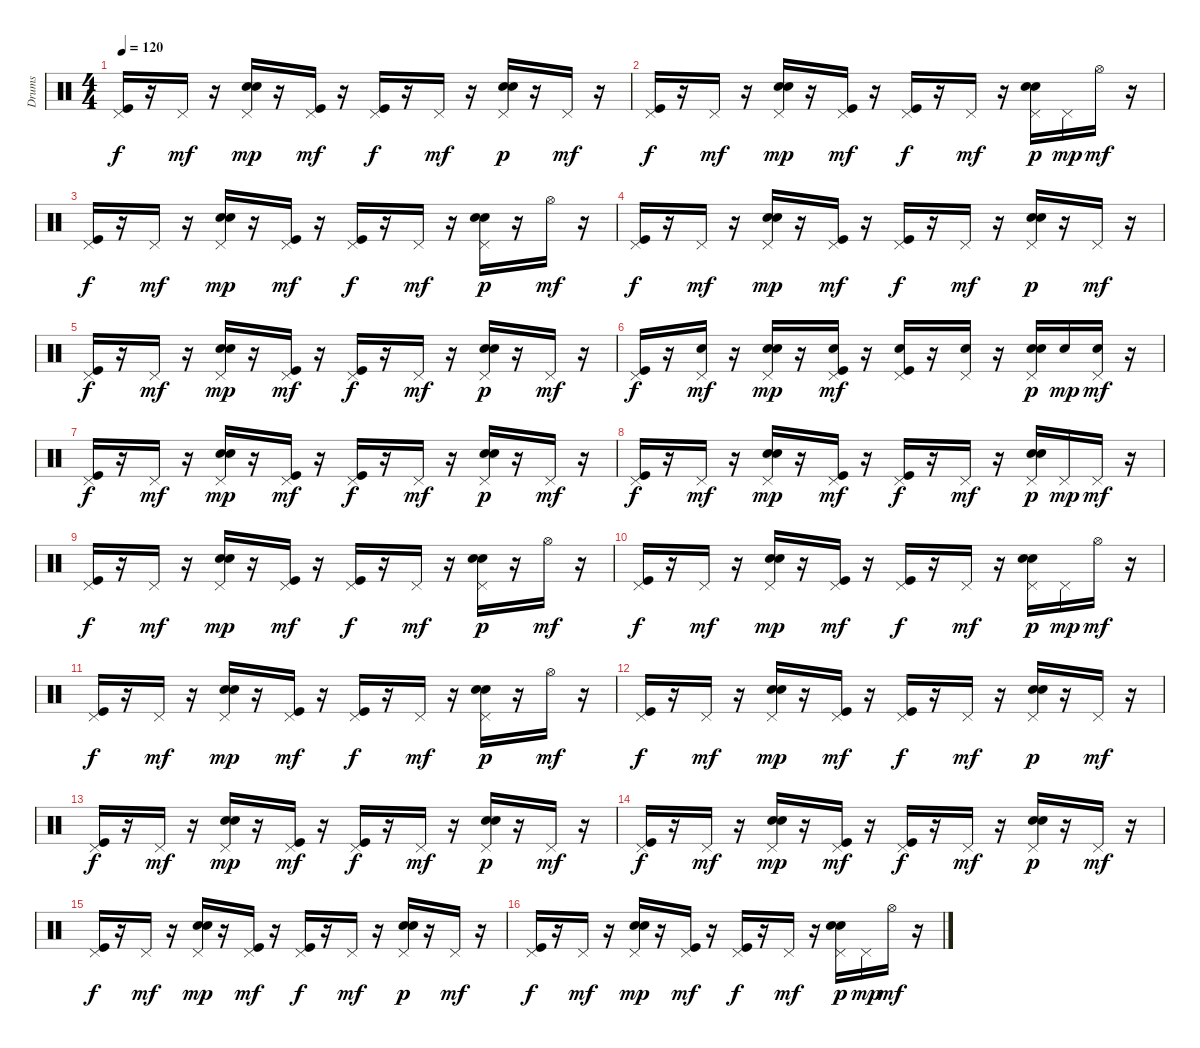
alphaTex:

\track ("Drums   " "Drums   ") {instrument percussion}
\staff {score}
\articulation defaults
\ts (4 4)
\tempo 120
\clef neutral
\ks c
("Kick (hit)" "Pedal Hi-Hat (hit)").16{dy f} r.16 "Pedal Hi-Hat (hit)".16{dy mf} r.16 ("Electric Snare (hit)" "Pedal Hi-Hat (hit)" "Hand Clap (hit)").16{dy mp} r.16 ("Kick (hit)" "Pedal Hi-Hat (hit)").16{dy mf} r.16 ("Kick (hit)" "Pedal Hi-Hat (hit)").16{dy f} r.16 "Pedal Hi-Hat (hit)".16{dy mf} r.16 ("Electric Snare (hit)" "Pedal Hi-Hat (hit)" "Hand Clap (hit)").16{dy p} r.16 "Pedal Hi-Hat (hit)".16{dy mf} r.16 |
("Kick (hit)" "Pedal Hi-Hat (hit)").16{dy f} r.16 "Pedal Hi-Hat (hit)".16{dy mf} r.16 ("Electric Snare (hit)" "Pedal Hi-Hat (hit)" "Hand Clap (hit)").16{dy mp} r.16 ("Kick (hit)" "Pedal Hi-Hat (hit)").16{dy mf} r.16 ("Kick (hit)" "Pedal Hi-Hat (hit)").16{dy f} r.16 "Pedal Hi-Hat (hit)".16{dy mf} r.16 ("Electric Snare (hit)" "Pedal Hi-Hat (hit)" "Hand Clap (hit)").16{dy p} "Pedal Hi-Hat (hit)".16{dy mp} "Hi-Hat (open)".16{dy mf} r.16 |
("Kick (hit)" "Pedal Hi-Hat (hit)").16{dy f} r.16 "Pedal Hi-Hat (hit)".16{dy mf} r.16 ("Electric Snare (hit)" "Pedal Hi-Hat (hit)" "Hand Clap (hit)").16{dy mp} r.16 ("Kick (hit)" "Pedal Hi-Hat (hit)").16{dy mf} r.16 ("Kick (hit)" "Pedal Hi-Hat (hit)").16{dy f} r.16 "Pedal Hi-Hat (hit)".16{dy mf} r.16 ("Electric Snare (hit)" "Pedal Hi-Hat (hit)" "Hand Clap (hit)").16{dy p} r.16 "Hi-Hat (open)".16{dy mf} r.16 |
("Kick (hit)" "Pedal Hi-Hat (hit)").16{dy f} r.16 "Pedal Hi-Hat (hit)".16{dy mf} r.16 ("Electric Snare (hit)" "Pedal Hi-Hat (hit)" "Hand Clap (hit)").16{dy mp} r.16 ("Kick (hit)" "Pedal Hi-Hat (hit)").16{dy mf} r.16 ("Kick (hit)" "Pedal Hi-Hat (hit)").16{dy f} r.16 "Pedal Hi-Hat (hit)".16{dy mf} r.16 ("Electric Snare (hit)" "Pedal Hi-Hat (hit)" "Hand Clap (hit)").16{dy p} r.16 "Pedal Hi-Hat (hit)".16{dy mf} r.16 |
("Kick (hit)" "Pedal Hi-Hat (hit)").16{dy f} r.16 "Pedal Hi-Hat (hit)".16{dy mf} r.16 ("Electric Snare (hit)" "Pedal Hi-Hat (hit)" "Hand Clap (hit)").16{dy mp} r.16 ("Kick (hit)" "Pedal Hi-Hat (hit)").16{dy mf} r.16 ("Kick (hit)" "Pedal Hi-Hat (hit)").16{dy f} r.16 "Pedal Hi-Hat (hit)".16{dy mf} r.16 ("Electric Snare (hit)" "Pedal Hi-Hat (hit)" "Hand Clap (hit)").16{dy p} r.16 "Pedal Hi-Hat (hit)".16{dy mf} r.16 |
("Kick (hit)" "Pedal Hi-Hat (hit)").16{dy f} r.16 ("Electric Snare (hit)" "Pedal Hi-Hat (hit)").16{dy mf} r.16 ("Electric Snare (hit)" "Pedal Hi-Hat (hit)" "Hand Clap (hit)").16{dy mp} r.16 ("Kick (hit)" "Electric Snare (hit)" "Pedal Hi-Hat (hit)").16{dy mf} r.16 ("Kick (hit)" "Electric Snare (hit)" "Pedal Hi-Hat (hit)").16 r.16 ("Electric Snare (hit)" "Pedal Hi-Hat (hit)").16 r.16 ("Electric Snare (hit)" "Pedal Hi-Hat (hit)" "Hand Clap (hit)").16{dy p} "Electric Snare (hit)".16{dy mp} ("Electric Snare (hit)" "Pedal Hi-Hat (hit)").16{dy mf} r.16 |
("Kick (hit)" "Pedal Hi-Hat (hit)").16{dy f} r.16 "Pedal Hi-Hat (hit)".16{dy mf} r.16 ("Electric Snare (hit)" "Pedal Hi-Hat (hit)" "Hand Clap (hit)").16{dy mp} r.16 ("Kick (hit)" "Pedal Hi-Hat (hit)").16{dy mf} r.16 ("Kick (hit)" "Pedal Hi-Hat (hit)").16{dy f} r.16 "Pedal Hi-Hat (hit)".16{dy mf} r.16 ("Electric Snare (hit)" "Pedal Hi-Hat (hit)" "Hand Clap (hit)").16{dy p} r.16 "Pedal Hi-Hat (hit)".16{dy mf} r.16 |
("Kick (hit)" "Pedal Hi-Hat (hit)").16{dy f} r.16 "Pedal Hi-Hat (hit)".16{dy mf} r.16 ("Electric Snare (hit)" "Pedal Hi-Hat (hit)" "Hand Clap (hit)").16{dy mp} r.16 ("Kick (hit)" "Pedal Hi-Hat (hit)").16{dy mf} r.16 ("Kick (hit)" "Pedal Hi-Hat (hit)").16{dy f} r.16 "Pedal Hi-Hat (hit)".16{dy mf} r.16 ("Electric Snare (hit)" "Pedal Hi-Hat (hit)" "Hand Clap (hit)").16{dy p} "Pedal Hi-Hat (hit)".16{dy mp} "Pedal Hi-Hat (hit)".16{dy mf} r.16 |
("Kick (hit)" "Pedal Hi-Hat (hit)").16{dy f} r.16 "Pedal Hi-Hat (hit)".16{dy mf} r.16 ("Electric Snare (hit)" "Pedal Hi-Hat (hit)" "Hand Clap (hit)").16{dy mp} r.16 ("Kick (hit)" "Pedal Hi-Hat (hit)").16{dy mf} r.16 ("Kick (hit)" "Pedal Hi-Hat (hit)").16{dy f} r.16 "Pedal Hi-Hat (hit)".16{dy mf} r.16 ("Electric Snare (hit)" "Pedal Hi-Hat (hit)" "Hand Clap (hit)").16{dy p} r.16 "Hi-Hat (open)".16{dy mf} r.16 |
("Kick (hit)" "Pedal Hi-Hat (hit)").16{dy f} r.16 "Pedal Hi-Hat (hit)".16{dy mf} r.16 ("Electric Snare (hit)" "Pedal Hi-Hat (hit)" "Hand Clap (hit)").16{dy mp} r.16 ("Kick (hit)" "Pedal Hi-Hat (hit)").16{dy mf} r.16 ("Kick (hit)" "Pedal Hi-Hat (hit)").16{dy f} r.16 "Pedal Hi-Hat (hit)".16{dy mf} r.16 ("Electric Snare (hit)" "Pedal Hi-Hat (hit)" "Hand Clap (hit)").16{dy p} "Pedal Hi-Hat (hit)".16{dy mp} "Hi-Hat (open)".16{dy mf} r.16 |
("Kick (hit)" "Pedal Hi-Hat (hit)").16{dy f} r.16 "Pedal Hi-Hat (hit)".16{dy mf} r.16 ("Electric Snare (hit)" "Pedal Hi-Hat (hit)" "Hand Clap (hit)").16{dy mp} r.16 ("Kick (hit)" "Pedal Hi-Hat (hit)").16{dy mf} r.16 ("Kick (hit)" "Pedal Hi-Hat (hit)").16{dy f} r.16 "Pedal Hi-Hat (hit)".16{dy mf} r.16 ("Electric Snare (hit)" "Pedal Hi-Hat (hit)" "Hand Clap (hit)").16{dy p} r.16 "Hi-Hat (open)".16{dy mf} r.16 |
("Kick (hit)" "Pedal Hi-Hat (hit)").16{dy f} r.16 "Pedal Hi-Hat (hit)".16{dy mf} r.16 ("Electric Snare (hit)" "Pedal Hi-Hat (hit)" "Hand Clap (hit)").16{dy mp} r.16 ("Kick (hit)" "Pedal Hi-Hat (hit)").16{dy mf} r.16 ("Kick (hit)" "Pedal Hi-Hat (hit)").16{dy f} r.16 "Pedal Hi-Hat (hit)".16{dy mf} r.16 ("Electric Snare (hit)" "Pedal Hi-Hat (hit)" "Hand Clap (hit)").16{dy p} r.16 "Pedal Hi-Hat (hit)".16{dy mf} r.16 |
("Kick (hit)" "Pedal Hi-Hat (hit)").16{dy f} r.16 "Pedal Hi-Hat (hit)".16{dy mf} r.16 ("Electric Snare (hit)" "Pedal Hi-Hat (hit)" "Hand Clap (hit)").16{dy mp} r.16 ("Kick (hit)" "Pedal Hi-Hat (hit)").16{dy mf} r.16 ("Kick (hit)" "Pedal Hi-Hat (hit)").16{dy f} r.16 "Pedal Hi-Hat (hit)".16{dy mf} r.16 ("Electric Snare (hit)" "Pedal Hi-Hat (hit)" "Hand Clap (hit)").16{dy p} r.16 "Pedal Hi-Hat (hit)".16{dy mf} r.16 |
("Kick (hit)" "Pedal Hi-Hat (hit)").16{dy f} r.16 "Pedal Hi-Hat (hit)".16{dy mf} r.16 ("Electric Snare (hit)" "Pedal Hi-Hat (hit)" "Hand Clap (hit)").16{dy mp} r.16 ("Kick (hit)" "Pedal Hi-Hat (hit)").16{dy mf} r.16 ("Kick (hit)" "Pedal Hi-Hat (hit)").16{dy f} r.16 "Pedal Hi-Hat (hit)".16{dy mf} r.16 ("Electric Snare (hit)" "Pedal Hi-Hat (hit)" "Hand Clap (hit)").16{dy p} r.16 "Pedal Hi-Hat (hit)".16{dy mf} r.16 |
("Kick (hit)" "Pedal Hi-Hat (hit)").16{dy f} r.16 "Pedal Hi-Hat (hit)".16{dy mf} r.16 ("Electric Snare (hit)" "Pedal Hi-Hat (hit)" "Hand Clap (hit)").16{dy mp} r.16 ("Kick (hit)" "Pedal Hi-Hat (hit)").16{dy mf} r.16 ("Kick (hit)" "Pedal Hi-Hat (hit)").16{dy f} r.16 "Pedal Hi-Hat (hit)".16{dy mf} r.16 ("Electric Snare (hit)" "Pedal Hi-Hat (hit)" "Hand Clap (hit)").16{dy p} r.16 "Pedal Hi-Hat (hit)".16{dy mf} r.16 |
("Kick (hit)" "Pedal Hi-Hat (hit)").16{dy f} r.16 "Pedal Hi-Hat (hit)".16{dy mf} r.16 ("Electric Snare (hit)" "Pedal Hi-Hat (hit)" "Hand Clap (hit)").16{dy mp} r.16 ("Kick (hit)" "Pedal Hi-Hat (hit)").16{dy mf} r.16 ("Kick (hit)" "Pedal Hi-Hat (hit)").16{dy f} r.16 "Pedal Hi-Hat (hit)".16{dy mf} r.16 ("Electric Snare (hit)" "Pedal Hi-Hat (hit)" "Hand Clap (hit)").16{dy p} "Pedal Hi-Hat (hit)".16{dy mp} "Hi-Hat (open)".16{dy mf} r.16
